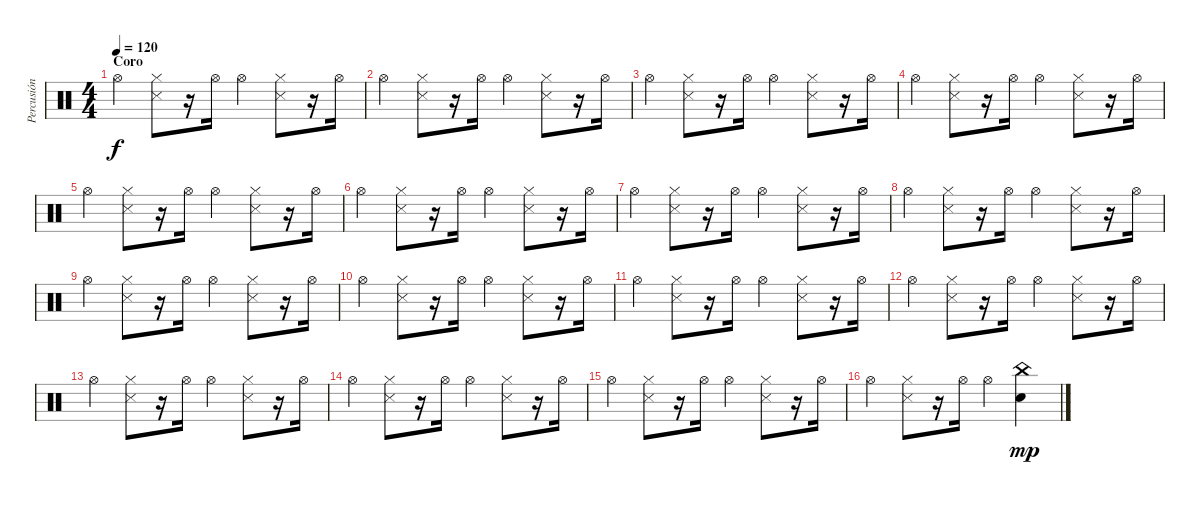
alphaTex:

\track ("Percusión" "Percusión") {instrument percussion}
\staff {score}
\articulation defaults
\ts (4 4)
\section ("" "Coro")
\tempo 120
\clef neutral
\ks c "Hi-Hat (open)".4{dy f}
("Hi-Hat (closed)" "Snare (side stick) 3").8 r.16 "Hi-Hat (open)".16 "Hi-Hat (open)".4 ("Hi-Hat (closed)" "Snare (side stick) 3").8 r.16 "Hi-Hat (open)".16 |
"Hi-Hat (open)".4 ("Hi-Hat (closed)" "Snare (side stick) 3").8 r.16 "Hi-Hat (open)".16 "Hi-Hat (open)".4 ("Hi-Hat (closed)" "Snare (side stick) 3").8 r.16 "Hi-Hat (open)".16 |
"Hi-Hat (open)".4 ("Hi-Hat (closed)" "Snare (side stick) 3").8 r.16 "Hi-Hat (open)".16 "Hi-Hat (open)".4 ("Hi-Hat (closed)" "Snare (side stick) 3").8 r.16 "Hi-Hat (open)".16 |
"Hi-Hat (open)".4 ("Hi-Hat (closed)" "Snare (side stick) 3").8 r.16 "Hi-Hat (open)".16 "Hi-Hat (open)".4 ("Hi-Hat (closed)" "Snare (side stick) 3").8 r.16 "Hi-Hat (open)".16 |
"Hi-Hat (open)".4 ("Hi-Hat (closed)" "Snare (side stick) 3").8 r.16 "Hi-Hat (open)".16 "Hi-Hat (open)".4 ("Hi-Hat (closed)" "Snare (side stick) 3").8 r.16 "Hi-Hat (open)".16 |
"Hi-Hat (open)".4 ("Hi-Hat (closed)" "Snare (side stick) 3").8 r.16 "Hi-Hat (open)".16 "Hi-Hat (open)".4 ("Hi-Hat (closed)" "Snare (side stick) 3").8 r.16 "Hi-Hat (open)".16 |
"Hi-Hat (open)".4 ("Hi-Hat (closed)" "Snare (side stick) 3").8 r.16 "Hi-Hat (open)".16 "Hi-Hat (open)".4 ("Hi-Hat (closed)" "Snare (side stick) 3").8 r.16 "Hi-Hat (open)".16 |
"Hi-Hat (open)".4 ("Hi-Hat (closed)" "Snare (side stick) 3").8 r.16 "Hi-Hat (open)".16 "Hi-Hat (open)".4 ("Hi-Hat (closed)" "Snare (side stick) 3").8 r.16 "Hi-Hat (open)".16 |
"Hi-Hat (open)".4 ("Hi-Hat (closed)" "Snare (side stick) 3").8 r.16 "Hi-Hat (open)".16 "Hi-Hat (open)".4 ("Hi-Hat (closed)" "Snare (side stick) 3").8 r.16 "Hi-Hat (open)".16 |
"Hi-Hat (open)".4 ("Hi-Hat (closed)" "Snare (side stick) 3").8 r.16 "Hi-Hat (open)".16 "Hi-Hat (open)".4 ("Hi-Hat (closed)" "Snare (side stick) 3").8 r.16 "Hi-Hat (open)".16 |
"Hi-Hat (open)".4 ("Hi-Hat (closed)" "Snare (side stick) 3").8 r.16 "Hi-Hat (open)".16 "Hi-Hat (open)".4 ("Hi-Hat (closed)" "Snare (side stick) 3").8 r.16 "Hi-Hat (open)".16 |
"Hi-Hat (open)".4 ("Hi-Hat (closed)" "Snare (side stick) 3").8 r.16 "Hi-Hat (open)".16 "Hi-Hat (open)".4 ("Hi-Hat (closed)" "Snare (side stick) 3").8 r.16 "Hi-Hat (open)".16 |
"Hi-Hat (open)".4 ("Hi-Hat (closed)" "Snare (side stick) 3").8 r.16 "Hi-Hat (open)".16 "Hi-Hat (open)".4 ("Hi-Hat (closed)" "Snare (side stick) 3").8 r.16 "Hi-Hat (open)".16 |
"Hi-Hat (open)".4 ("Hi-Hat (closed)" "Snare (side stick) 3").8 r.16 "Hi-Hat (open)".16 "Hi-Hat (open)".4 ("Hi-Hat (closed)" "Snare (side stick) 3").8 r.16 "Hi-Hat (open)".16 |
"Hi-Hat (open)".4 ("Hi-Hat (closed)" "Snare (side stick) 3").8 r.16 "Hi-Hat (open)".16 "Hi-Hat (open)".4 ("Hi-Hat (closed)" "Snare (side stick) 3").8 r.16 "Hi-Hat (open)".16 |
"Hi-Hat (open)".4 ("Hi-Hat (closed)" "Snare (side stick) 3").8 r.16 "Hi-Hat (open)".16 "Hi-Hat (open)".4 ("China (hit)" "Snare (hit) 2").4{dy mp volume 14}
